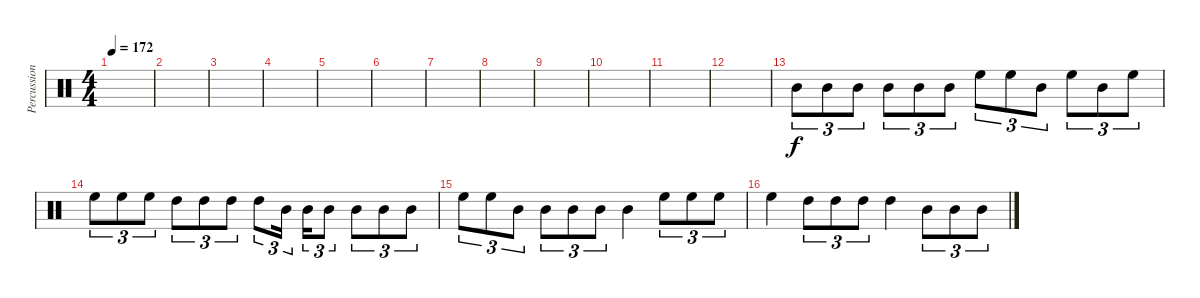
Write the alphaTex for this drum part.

\track ("Percussions" "Percussion") {instrument percussion}
\staff {score}
\articulation defaults
\ts (4 4)
\tempo 172
\clef neutral
\ks c
|
|
|
|
|
|
|
|
|
|
|
|
"Mid Tom (hit)".8{tu (3 2)} "Mid Tom (hit)".8{tu (3 2)} "Mid Tom (hit)".8{tu (3 2)} "Mid Tom (hit)".8{tu (3 2)} "Mid Tom (hit)".8{tu (3 2)} "Mid Tom (hit)".8{tu (3 2)} "High Floor Tom (hit)".8{tu (3 2)} "High Floor Tom (hit)".8{tu (3 2)} "Mid Tom (hit)".8{tu (3 2)} "High Floor Tom (hit)".8{tu (3 2)} "Mid Tom (hit)".8{tu (3 2)} "High Floor Tom (hit)".8{tu (3 2)} |
"High Floor Tom (hit)".8{tu (3 2)} "High Floor Tom (hit)".8{tu (3 2)} "High Floor Tom (hit)".8{tu (3 2)} "High Tom (hit)".8{tu (3 2)} "High Tom (hit)".8{tu (3 2)} "High Tom (hit)".8{tu (3 2)} "High Tom (hit)".8{tu (3 2)} "Mid Tom (hit)".16{tu (3 2)} "Mid Tom (hit)".16{tu (3 2)} "Mid Tom (hit)".8{tu (3 2)} "Mid Tom (hit)".8{tu (3 2)} "Mid Tom (hit)".8{tu (3 2)} "Mid Tom (hit)".8{tu (3 2)} |
"High Floor Tom (hit)".8{tu (3 2)} "High Floor Tom (hit)".8{tu (3 2)} "Mid Tom (hit)".8{tu (3 2)} "Mid Tom (hit)".8{tu (3 2)} "Mid Tom (hit)".8{tu (3 2)} "Mid Tom (hit)".8{tu (3 2)} "Mid Tom (hit)".4 "High Floor Tom (hit)".8{tu (3 2)} "High Floor Tom (hit)".8{tu (3 2)} "High Floor Tom (hit)".8{tu (3 2)} |
"High Floor Tom (hit)".4 "High Tom (hit)".8{tu (3 2)} "High Tom (hit)".8{tu (3 2)} "High Tom (hit)".8{tu (3 2)} "High Tom (hit)".4 "Mid Tom (hit)".8{tu (3 2)} "Mid Tom (hit)".8{tu (3 2)} "Mid Tom (hit)".8{tu (3 2)}
